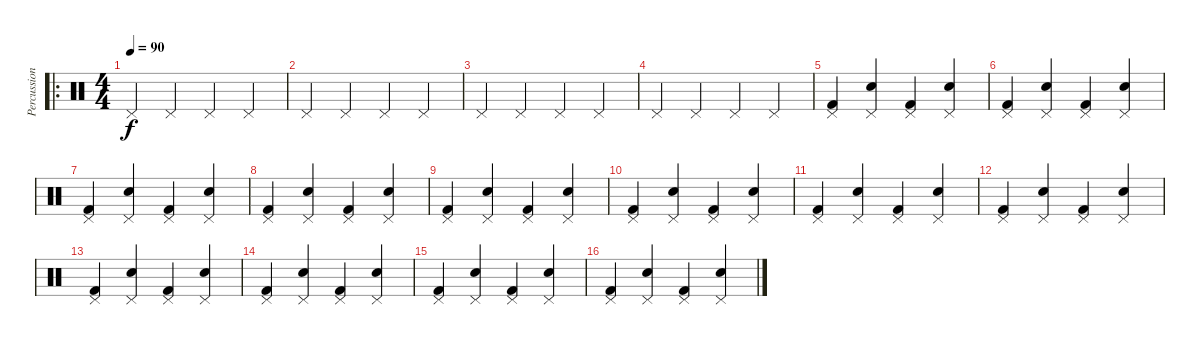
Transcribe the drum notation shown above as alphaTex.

\track ("Percussion" "Percussion") {instrument percussion}
\staff {score}
\articulation defaults
\ro
\ts (4 4)
\tempo 90
\clef neutral
\ks c "Pedal Hi-Hat (hit)".4{dy f} "Pedal Hi-Hat (hit)".4 "Pedal Hi-Hat (hit)".4 "Pedal Hi-Hat (hit)".4
|
"Pedal Hi-Hat (hit)".4 "Pedal Hi-Hat (hit)".4 "Pedal Hi-Hat (hit)".4 "Pedal Hi-Hat (hit)".4 |
"Pedal Hi-Hat (hit)".4 "Pedal Hi-Hat (hit)".4 "Pedal Hi-Hat (hit)".4 "Pedal Hi-Hat (hit)".4 |
"Pedal Hi-Hat (hit)".4 "Pedal Hi-Hat (hit)".4 "Pedal Hi-Hat (hit)".4 "Pedal Hi-Hat (hit)".4 |
("Pedal Hi-Hat (hit)" "Kick (hit) 2").4 ("Pedal Hi-Hat (hit)" "Electric Snare (hit)").4 ("Pedal Hi-Hat (hit)" "Kick (hit) 2").4 ("Pedal Hi-Hat (hit)" "Electric Snare (hit)").4 |
("Pedal Hi-Hat (hit)" "Kick (hit) 2").4 ("Pedal Hi-Hat (hit)" "Electric Snare (hit)").4 ("Pedal Hi-Hat (hit)" "Kick (hit) 2").4 ("Pedal Hi-Hat (hit)" "Electric Snare (hit)").4 |
("Pedal Hi-Hat (hit)" "Kick (hit) 2").4 ("Pedal Hi-Hat (hit)" "Electric Snare (hit)").4 ("Pedal Hi-Hat (hit)" "Kick (hit) 2").4 ("Pedal Hi-Hat (hit)" "Electric Snare (hit)").4 |
("Pedal Hi-Hat (hit)" "Kick (hit) 2").4 ("Pedal Hi-Hat (hit)" "Electric Snare (hit)").4 ("Pedal Hi-Hat (hit)" "Kick (hit) 2").4 ("Pedal Hi-Hat (hit)" "Electric Snare (hit)").4 |
("Pedal Hi-Hat (hit)" "Kick (hit) 2").4 ("Pedal Hi-Hat (hit)" "Electric Snare (hit)").4 ("Pedal Hi-Hat (hit)" "Kick (hit) 2").4 ("Pedal Hi-Hat (hit)" "Electric Snare (hit)").4 |
("Pedal Hi-Hat (hit)" "Kick (hit) 2").4 ("Pedal Hi-Hat (hit)" "Electric Snare (hit)").4 ("Pedal Hi-Hat (hit)" "Kick (hit) 2").4 ("Pedal Hi-Hat (hit)" "Electric Snare (hit)").4 |
("Pedal Hi-Hat (hit)" "Kick (hit) 2").4 ("Pedal Hi-Hat (hit)" "Electric Snare (hit)").4 ("Pedal Hi-Hat (hit)" "Kick (hit) 2").4 ("Pedal Hi-Hat (hit)" "Electric Snare (hit)").4 |
("Pedal Hi-Hat (hit)" "Kick (hit) 2").4 ("Pedal Hi-Hat (hit)" "Electric Snare (hit)").4 ("Pedal Hi-Hat (hit)" "Kick (hit) 2").4 ("Pedal Hi-Hat (hit)" "Electric Snare (hit)").4 |
("Pedal Hi-Hat (hit)" "Kick (hit) 2").4 ("Pedal Hi-Hat (hit)" "Electric Snare (hit)").4 ("Pedal Hi-Hat (hit)" "Kick (hit) 2").4 ("Pedal Hi-Hat (hit)" "Electric Snare (hit)").4 |
("Pedal Hi-Hat (hit)" "Kick (hit) 2").4 ("Pedal Hi-Hat (hit)" "Electric Snare (hit)").4 ("Pedal Hi-Hat (hit)" "Kick (hit) 2").4 ("Pedal Hi-Hat (hit)" "Electric Snare (hit)").4 |
("Pedal Hi-Hat (hit)" "Kick (hit) 2").4 ("Pedal Hi-Hat (hit)" "Electric Snare (hit)").4 ("Pedal Hi-Hat (hit)" "Kick (hit) 2").4 ("Pedal Hi-Hat (hit)" "Electric Snare (hit)").4 |
("Pedal Hi-Hat (hit)" "Kick (hit) 2").4 ("Pedal Hi-Hat (hit)" "Electric Snare (hit)").4 ("Pedal Hi-Hat (hit)" "Kick (hit) 2").4 ("Pedal Hi-Hat (hit)" "Electric Snare (hit)").4
